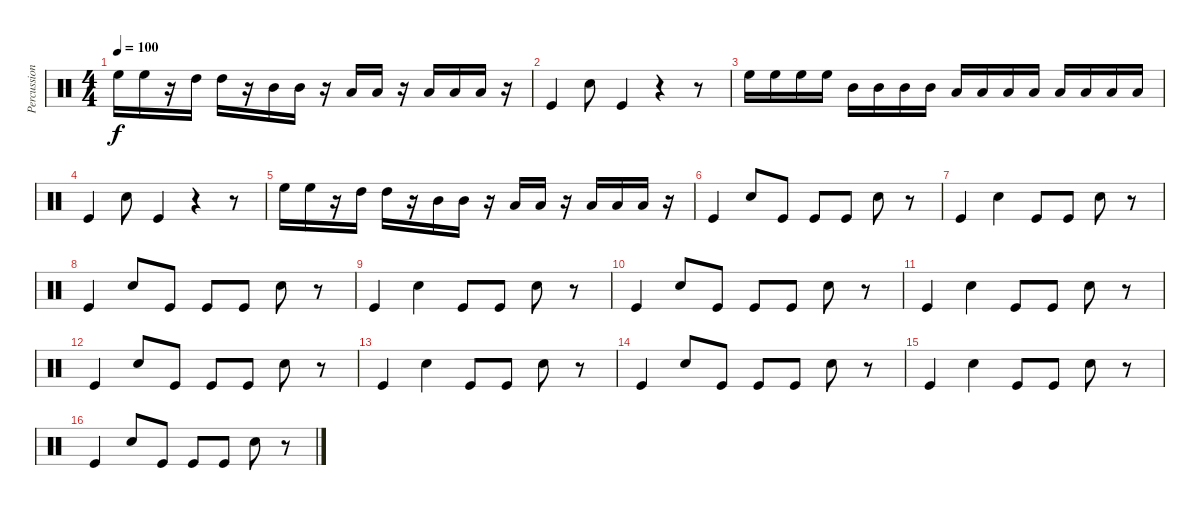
\track ("Percussion" "Percussion") {instrument percussion}
\staff {score}
\articulation defaults
\ts (4 4)
\tempo 100
\clef neutral
\ks c "High Floor Tom (hit)".16{dy f} "High Floor Tom (hit)".16
r.16 "High Tom (hit)".16 "High Tom (hit)".16 r.16 "Mid Tom (hit)".16 "Mid Tom (hit)".16 r.16 "Low Tom (hit)".16 "Low Tom (hit)".16 r.16 "Low Floor Tom (hit)".16 "Low Floor Tom (hit)".16 "Low Floor Tom (hit)".16 r.16 |
"Kick (hit)".4 "Snare (hit) 2".8 "Kick (hit)".4 r.4 r.8 |
"High Floor Tom (hit)".16 "High Floor Tom (hit)".16 "High Floor Tom (hit)".16 "High Floor Tom (hit)".16 "Mid Tom (hit)".16 "Mid Tom (hit)".16 "Mid Tom (hit)".16 "Mid Tom (hit)".16 "Low Tom (hit)".16 "Low Tom (hit)".16 "Low Tom (hit)".16 "Low Tom (hit)".16 "Low Floor Tom (hit)".16 "Low Floor Tom (hit)".16 "Low Floor Tom (hit)".16 "Low Floor Tom (hit)".16 |
"Kick (hit)".4 "Snare (hit) 2".8 "Kick (hit)".4 r.4 r.8 |
"High Floor Tom (hit)".16 "High Floor Tom (hit)".16 r.16 "High Tom (hit)".16 "High Tom (hit)".16 r.16 "Mid Tom (hit)".16 "Mid Tom (hit)".16 r.16 "Low Tom (hit)".16 "Low Tom (hit)".16 r.16 "Low Floor Tom (hit)".16 "Low Floor Tom (hit)".16 "Low Floor Tom (hit)".16 r.16 |
"Kick (hit)".4 "Snare (hit) 2".8 "Kick (hit)".8 "Kick (hit)".8 "Kick (hit)".8 "Snare (hit) 2".8 r.8 |
"Kick (hit)".4 "Snare (hit) 2".4 "Kick (hit)".8 "Kick (hit)".8 "Snare (hit) 2".8 r.8 |
"Kick (hit)".4 "Snare (hit) 2".8 "Kick (hit)".8 "Kick (hit)".8 "Kick (hit)".8 "Snare (hit) 2".8 r.8 |
"Kick (hit)".4 "Snare (hit) 2".4 "Kick (hit)".8 "Kick (hit)".8 "Snare (hit) 2".8 r.8 |
"Kick (hit)".4 "Snare (hit) 2".8 "Kick (hit)".8 "Kick (hit)".8 "Kick (hit)".8 "Snare (hit) 2".8 r.8 |
"Kick (hit)".4 "Snare (hit) 2".4 "Kick (hit)".8 "Kick (hit)".8 "Snare (hit) 2".8 r.8 |
"Kick (hit)".4 "Snare (hit) 2".8 "Kick (hit)".8 "Kick (hit)".8 "Kick (hit)".8 "Snare (hit) 2".8 r.8 |
"Kick (hit)".4 "Snare (hit) 2".4 "Kick (hit)".8 "Kick (hit)".8 "Snare (hit) 2".8 r.8 |
"Kick (hit)".4 "Snare (hit) 2".8 "Kick (hit)".8 "Kick (hit)".8 "Kick (hit)".8 "Snare (hit) 2".8 r.8 |
"Kick (hit)".4 "Snare (hit) 2".4 "Kick (hit)".8 "Kick (hit)".8 "Snare (hit) 2".8 r.8 |
"Kick (hit)".4 "Snare (hit) 2".8 "Kick (hit)".8 "Kick (hit)".8 "Kick (hit)".8 "Snare (hit) 2".8 r.8
